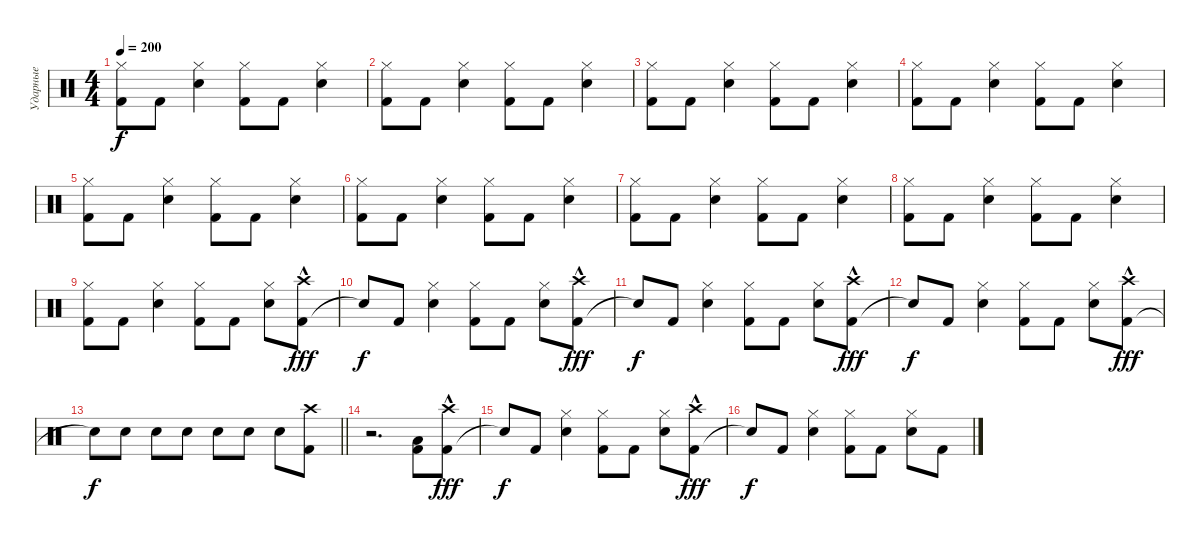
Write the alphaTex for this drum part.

\track ("Ударные" "Ударные") {instrument percussion}
\staff {score}
\articulation defaults
\ts (4 4)
\tempo 200
\clef neutral
\ks c
("Kick (hit) 2" "Hi-Hat (closed)").8{dy f} "Kick (hit) 2".8 ("Snare (hit) 2" "Hi-Hat (closed)").4 ("Kick (hit) 2" "Hi-Hat (closed)").8 "Kick (hit) 2".8 ("Snare (hit) 2" "Hi-Hat (closed)").4 |
("Kick (hit) 2" "Hi-Hat (closed)").8 "Kick (hit) 2".8 ("Snare (hit) 2" "Hi-Hat (closed)").4 ("Kick (hit) 2" "Hi-Hat (closed)").8 "Kick (hit) 2".8 ("Snare (hit) 2" "Hi-Hat (closed)").4 |
("Kick (hit) 2" "Hi-Hat (closed)").8 "Kick (hit) 2".8 ("Snare (hit) 2" "Hi-Hat (closed)").4 ("Kick (hit) 2" "Hi-Hat (closed)").8 "Kick (hit) 2".8 ("Snare (hit) 2" "Hi-Hat (closed)").4 |
("Kick (hit) 2" "Hi-Hat (closed)").8 "Kick (hit) 2".8 ("Snare (hit) 2" "Hi-Hat (closed)").4 ("Kick (hit) 2" "Hi-Hat (closed)").8 "Kick (hit) 2".8 ("Snare (hit) 2" "Hi-Hat (closed)").4 |
("Kick (hit) 2" "Hi-Hat (closed)").8 "Kick (hit) 2".8 ("Snare (hit) 2" "Hi-Hat (closed)").4 ("Kick (hit) 2" "Hi-Hat (closed)").8 "Kick (hit) 2".8 ("Snare (hit) 2" "Hi-Hat (closed)").4 |
("Kick (hit) 2" "Hi-Hat (closed)").8 "Kick (hit) 2".8 ("Snare (hit) 2" "Hi-Hat (closed)").4 ("Kick (hit) 2" "Hi-Hat (closed)").8 "Kick (hit) 2".8 ("Snare (hit) 2" "Hi-Hat (closed)").4 |
("Kick (hit) 2" "Hi-Hat (closed)").8 "Kick (hit) 2".8 ("Snare (hit) 2" "Hi-Hat (closed)").4 ("Kick (hit) 2" "Hi-Hat (closed)").8 "Kick (hit) 2".8 ("Snare (hit) 2" "Hi-Hat (closed)").4 |
("Kick (hit) 2" "Hi-Hat (closed)").8 "Kick (hit) 2".8 ("Snare (hit) 2" "Hi-Hat (closed)").4 ("Kick (hit) 2" "Hi-Hat (closed)").8 "Kick (hit) 2".8 ("Snare (hit) 2" "Hi-Hat (closed)").4 |
("Kick (hit) 2" "Hi-Hat (closed)").8 "Kick (hit) 2".8 ("Snare (hit) 2" "Hi-Hat (closed)").4 ("Kick (hit) 2" "Hi-Hat (closed)").8 "Kick (hit) 2".8 ("Snare (hit) 2" "Hi-Hat (closed)").8 ("Kick (hit) 2" "Crash high (hit)"{hac}).8{dy fff} |
"Snare (hit)"{t}.8{dy f} "Kick (hit) 2".8 ("Snare (hit) 2" "Hi-Hat (closed)").4 ("Kick (hit) 2" "Hi-Hat (closed)").8 "Kick (hit) 2".8 ("Snare (hit) 2" "Hi-Hat (closed)").8 ("Kick (hit) 2" "Crash high (hit)"{hac}).8{dy fff} |
"Snare (hit)"{t}.8{dy f} "Kick (hit) 2".8 ("Snare (hit) 2" "Hi-Hat (closed)").4 ("Kick (hit) 2" "Hi-Hat (closed)").8 "Kick (hit) 2".8 ("Snare (hit) 2" "Hi-Hat (closed)").8 ("Kick (hit) 2" "Crash high (hit)"{hac}).8{dy fff} |
"Snare (hit)"{t}.8{dy f} "Kick (hit) 2".8 ("Snare (hit) 2" "Hi-Hat (closed)").4 ("Kick (hit) 2" "Hi-Hat (closed)").8 "Kick (hit) 2".8 ("Snare (hit) 2" "Hi-Hat (closed)").8 ("Kick (hit) 2" "Crash high (hit)"{hac}).8{dy fff} |
\barLineRight lightlight "Snare (hit)"{t}.8{dy f} "Snare (hit) 2".8 "Snare (hit) 2".8 "Snare (hit) 2".8 "Snare (hit) 2".8 "Snare (hit) 2".8 "Snare (hit) 2".8
("Kick (hit) 2" "Crash high (hit)").8 |
r.2{d} ("Kick (hit) 2" "Low Floor Tom (hit)").8 ("Kick (hit) 2" "Crash high (hit)"{hac}).8{dy fff} |
"Snare (hit)"{t}.8{dy f} "Kick (hit) 2".8 ("Snare (hit) 2" "Hi-Hat (closed)").4 ("Kick (hit) 2" "Hi-Hat (closed)").8 "Kick (hit) 2".8 ("Snare (hit) 2" "Hi-Hat (closed)").8 ("Kick (hit) 2" "Crash high (hit)"{hac}).8{dy fff} |
"Snare (hit)"{t}.8{dy f} "Kick (hit) 2".8 ("Snare (hit) 2" "Hi-Hat (closed)").4 ("Kick (hit) 2" "Hi-Hat (closed)").8 "Kick (hit) 2".8 ("Snare (hit) 2" "Hi-Hat (closed)").8 "Kick (hit) 2".8
